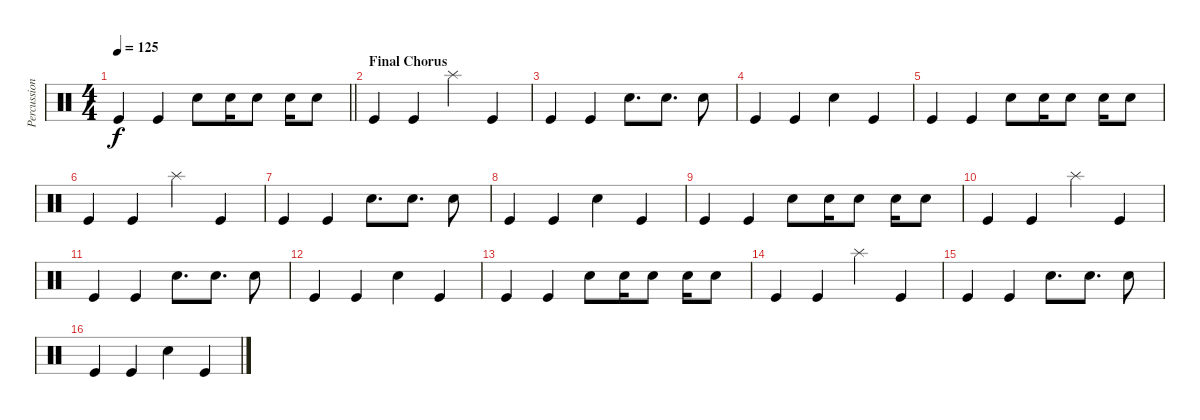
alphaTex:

\track ("Percussion" "Percussion") {instrument percussion}
\staff {score}
\articulation defaults
\ts (4 4)
\tempo 125
\clef neutral
\barLineRight lightlight
\ks c "Kick (hit)".4{dy f} "Kick (hit)".4 "Snare (hit) 2".8 "Snare (hit) 2".16 "Snare (hit) 2".8 "Snare (hit) 2".16 "Snare (hit) 2".8
|
\section ("" "Final Chorus")
"Kick (hit)".4 "Kick (hit)".4 "Splash (hit)".4 "Kick (hit)".4 |
"Kick (hit)".4 "Kick (hit)".4 "Snare (hit) 2".8{d} "Snare (hit) 2".8{d} "Snare (hit) 2".8 |
"Kick (hit)".4 "Kick (hit)".4 "Snare (hit) 2".4 "Kick (hit)".4 |
"Kick (hit)".4 "Kick (hit)".4 "Snare (hit) 2".8 "Snare (hit) 2".16 "Snare (hit) 2".8 "Snare (hit) 2".16 "Snare (hit) 2".8 |
"Kick (hit)".4 "Kick (hit)".4 "Splash (hit)".4 "Kick (hit)".4 |
"Kick (hit)".4 "Kick (hit)".4 "Snare (hit) 2".8{d} "Snare (hit) 2".8{d} "Snare (hit) 2".8 |
"Kick (hit)".4 "Kick (hit)".4 "Snare (hit) 2".4 "Kick (hit)".4 |
"Kick (hit)".4 "Kick (hit)".4 "Snare (hit) 2".8 "Snare (hit) 2".16 "Snare (hit) 2".8 "Snare (hit) 2".16 "Snare (hit) 2".8 |
"Kick (hit)".4 "Kick (hit)".4 "Splash (hit)".4 "Kick (hit)".4 |
"Kick (hit)".4 "Kick (hit)".4 "Snare (hit) 2".8{d} "Snare (hit) 2".8{d} "Snare (hit) 2".8 |
"Kick (hit)".4 "Kick (hit)".4 "Snare (hit) 2".4 "Kick (hit)".4 |
"Kick (hit)".4 "Kick (hit)".4 "Snare (hit) 2".8 "Snare (hit) 2".16 "Snare (hit) 2".8 "Snare (hit) 2".16 "Snare (hit) 2".8 |
"Kick (hit)".4 "Kick (hit)".4 "Splash (hit)".4 "Kick (hit)".4 |
"Kick (hit)".4 "Kick (hit)".4 "Snare (hit) 2".8{d} "Snare (hit) 2".8{d} "Snare (hit) 2".8 |
"Kick (hit)".4 "Kick (hit)".4 "Snare (hit) 2".4 "Kick (hit)".4
